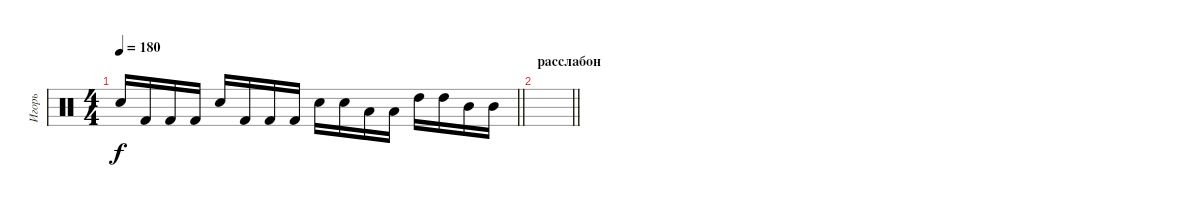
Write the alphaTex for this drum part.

\track ("Игорь" "Игорь") {instrument percussion}
\staff {score}
\articulation defaults
\ts (4 4)
\tempo 180
\clef neutral
\barLineRight lightlight
\ks c "Electric Snare (hit)".16{dy f} "Kick (hit) 2".16 "Kick (hit) 2".16 "Kick (hit) 2".16 "Electric Snare (hit)".16 "Kick (hit) 2".16 "Kick (hit) 2".16 "Kick (hit) 2".16 "Electric Snare (hit)".16 "Electric Snare (hit)".16 "Low Tom (hit)".16 "Low Tom (hit)".16 "High Tom (hit)".16 "High Tom (hit)".16 "Mid Tom (hit)".16 "Mid Tom (hit)".16
|
\section ("" "расслабон")
\barLineRight lightlight
